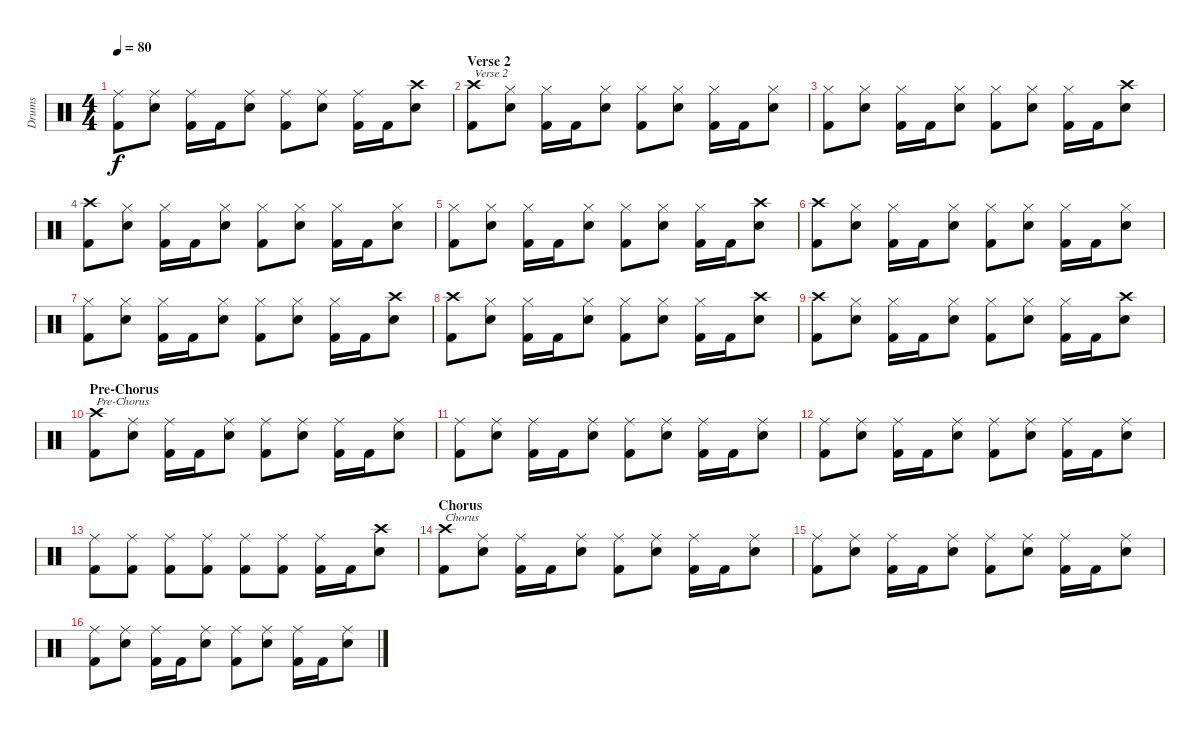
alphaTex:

\track ("Drums" "Drums") {instrument percussion}
\staff {score}
\articulation defaults
\ts (4 4)
\tempo 80
\clef neutral
\ks c
("Ride (middle)" "Kick (hit) 2").8{dy f} ("Ride (middle)" "Electric Snare (hit)").8 ("Ride (middle)" "Kick (hit) 2").16 "Kick (hit) 2".16 ("Ride (middle)" "Electric Snare (hit)").8 ("Ride (middle)" "Kick (hit) 2").8 ("Ride (middle)" "Electric Snare (hit)").8 ("Ride (middle)" "Kick (hit) 2").16 "Kick (hit) 2".16 ("Crash high (hit)" "Electric Snare (hit)").8 |
\section ("" "Verse 2")
("Crash high (hit)" "Kick (hit) 2").8{txt "Verse 2"} ("Hi-Hat (closed)" "Electric Snare (hit)").8 ("Hi-Hat (closed)" "Kick (hit) 2").16 "Kick (hit) 2".16 ("Hi-Hat (closed)" "Electric Snare (hit)").8 ("Hi-Hat (closed)" "Kick (hit) 2").8 ("Hi-Hat (closed)" "Electric Snare (hit)").8 ("Hi-Hat (closed)" "Kick (hit) 2").16 "Kick (hit) 2".16 ("Hi-Hat (closed)" "Electric Snare (hit)").8 |
("Hi-Hat (closed)" "Kick (hit) 2").8 ("Hi-Hat (closed)" "Electric Snare (hit)").8 ("Hi-Hat (closed)" "Kick (hit) 2").16 "Kick (hit) 2".16 ("Hi-Hat (closed)" "Electric Snare (hit)").8 ("Hi-Hat (closed)" "Kick (hit) 2").8 ("Hi-Hat (closed)" "Electric Snare (hit)").8 ("Hi-Hat (closed)" "Kick (hit) 2").16 "Kick (hit) 2".16 ("Crash high (hit)" "Electric Snare (hit)").8 |
("Crash high (hit)" "Kick (hit) 2").8 ("Hi-Hat (closed)" "Electric Snare (hit)").8 ("Hi-Hat (closed)" "Kick (hit) 2").16 "Kick (hit) 2".16 ("Hi-Hat (closed)" "Electric Snare (hit)").8 ("Hi-Hat (closed)" "Kick (hit) 2").8 ("Hi-Hat (closed)" "Electric Snare (hit)").8 ("Hi-Hat (closed)" "Kick (hit) 2").16 "Kick (hit) 2".16 ("Hi-Hat (closed)" "Electric Snare (hit)").8 |
("Hi-Hat (closed)" "Kick (hit) 2").8 ("Hi-Hat (closed)" "Electric Snare (hit)").8 ("Hi-Hat (closed)" "Kick (hit) 2").16 "Kick (hit) 2".16 ("Hi-Hat (closed)" "Electric Snare (hit)").8 ("Hi-Hat (closed)" "Kick (hit) 2").8 ("Hi-Hat (closed)" "Electric Snare (hit)").8 ("Hi-Hat (closed)" "Kick (hit) 2").16 "Kick (hit) 2".16 ("Crash high (hit)" "Electric Snare (hit)").8 |
("Crash high (hit)" "Kick (hit) 2").8 ("Hi-Hat (closed)" "Electric Snare (hit)").8 ("Hi-Hat (closed)" "Kick (hit) 2").16 "Kick (hit) 2".16 ("Hi-Hat (closed)" "Electric Snare (hit)").8 ("Hi-Hat (closed)" "Kick (hit) 2").8 ("Hi-Hat (closed)" "Electric Snare (hit)").8 ("Hi-Hat (closed)" "Kick (hit) 2").16 "Kick (hit) 2".16 ("Hi-Hat (closed)" "Electric Snare (hit)").8 |
("Hi-Hat (closed)" "Kick (hit) 2").8 ("Hi-Hat (closed)" "Electric Snare (hit)").8 ("Hi-Hat (closed)" "Kick (hit) 2").16 "Kick (hit) 2".16 ("Hi-Hat (closed)" "Electric Snare (hit)").8 ("Hi-Hat (closed)" "Kick (hit) 2").8 ("Hi-Hat (closed)" "Electric Snare (hit)").8 ("Hi-Hat (closed)" "Kick (hit) 2").16 "Kick (hit) 2".16 ("Crash high (hit)" "Electric Snare (hit)").8 |
("Crash high (hit)" "Kick (hit) 2").8 ("Hi-Hat (closed)" "Electric Snare (hit)").8 ("Hi-Hat (closed)" "Kick (hit) 2").16 "Kick (hit) 2".16 ("Hi-Hat (closed)" "Electric Snare (hit)").8 ("Hi-Hat (closed)" "Kick (hit) 2").8 ("Hi-Hat (closed)" "Electric Snare (hit)").8 ("Hi-Hat (closed)" "Kick (hit) 2").16 "Kick (hit) 2".16 ("Crash high (hit)" "Electric Snare (hit)").8 |
("Crash high (hit)" "Kick (hit) 2").8 ("Hi-Hat (closed)" "Electric Snare (hit)").8 ("Hi-Hat (closed)" "Kick (hit) 2").16 "Kick (hit) 2".16 ("Hi-Hat (closed)" "Electric Snare (hit)").8 ("Hi-Hat (closed)" "Kick (hit) 2").8 ("Hi-Hat (closed)" "Electric Snare (hit)").8 ("Hi-Hat (closed)" "Kick (hit) 2").16 "Kick (hit) 2".16 ("Crash high (hit)" "Electric Snare (hit)").8 |
\section ("" "Pre-Chorus")
("Crash high (hit)" "Kick (hit) 2").8{txt "Pre-Chorus"} ("Ride (middle)" "Electric Snare (hit)").8 ("Ride (middle)" "Kick (hit) 2").16 "Kick (hit) 2".16 ("Ride (middle)" "Electric Snare (hit)").8 ("Ride (middle)" "Kick (hit) 2").8 ("Ride (middle)" "Electric Snare (hit)").8 ("Ride (middle)" "Kick (hit) 2").16 "Kick (hit) 2".16 ("Ride (middle)" "Electric Snare (hit)").8 |
("Ride (middle)" "Kick (hit) 2").8 ("Ride (middle)" "Electric Snare (hit)").8 ("Ride (middle)" "Kick (hit) 2").16 "Kick (hit) 2".16 ("Ride (middle)" "Electric Snare (hit)").8 ("Ride (middle)" "Kick (hit) 2").8 ("Ride (middle)" "Electric Snare (hit)").8 ("Ride (middle)" "Kick (hit) 2").16 "Kick (hit) 2".16 ("Ride (middle)" "Electric Snare (hit)").8 |
("Ride (middle)" "Kick (hit) 2").8 ("Ride (middle)" "Electric Snare (hit)").8 ("Ride (middle)" "Kick (hit) 2").16 "Kick (hit) 2".16 ("Ride (middle)" "Electric Snare (hit)").8 ("Ride (middle)" "Kick (hit) 2").8 ("Ride (middle)" "Electric Snare (hit)").8 ("Ride (middle)" "Kick (hit) 2").16 "Kick (hit) 2".16 ("Ride (middle)" "Electric Snare (hit)").8 |
("Ride (middle)" "Kick (hit) 2").8 ("Ride (middle)" "Kick (hit) 2").8 ("Ride (middle)" "Kick (hit) 2").8 ("Ride (middle)" "Kick (hit) 2").8 ("Ride (middle)" "Kick (hit) 2").8 ("Ride (middle)" "Kick (hit) 2").8 ("Ride (middle)" "Kick (hit) 2").16 "Kick (hit) 2".16 ("Crash high (hit)" "Electric Snare (hit)").8 |
\section ("" "Chorus")
("Crash high (hit)" "Kick (hit) 2").8{txt "Chorus"} ("Ride (middle)" "Electric Snare (hit)").8 ("Ride (middle)" "Kick (hit) 2").16 "Kick (hit) 2".16 ("Ride (middle)" "Electric Snare (hit)").8 ("Ride (middle)" "Kick (hit) 2").8 ("Ride (middle)" "Electric Snare (hit)").8 ("Ride (middle)" "Kick (hit) 2").16 "Kick (hit) 2".16 ("Ride (middle)" "Electric Snare (hit)").8 |
("Ride (middle)" "Kick (hit) 2").8 ("Ride (middle)" "Electric Snare (hit)").8 ("Ride (middle)" "Kick (hit) 2").16 "Kick (hit) 2".16 ("Ride (middle)" "Electric Snare (hit)").8 ("Ride (middle)" "Kick (hit) 2").8 ("Ride (middle)" "Electric Snare (hit)").8 ("Ride (middle)" "Kick (hit) 2").16 "Kick (hit) 2".16 ("Ride (middle)" "Electric Snare (hit)").8 |
("Ride (middle)" "Kick (hit) 2").8 ("Ride (middle)" "Electric Snare (hit)").8 ("Ride (middle)" "Kick (hit) 2").16 "Kick (hit) 2".16 ("Ride (middle)" "Electric Snare (hit)").8 ("Ride (middle)" "Kick (hit) 2").8 ("Ride (middle)" "Electric Snare (hit)").8 ("Ride (middle)" "Kick (hit) 2").16 "Kick (hit) 2".16 ("Ride (middle)" "Electric Snare (hit)").8
